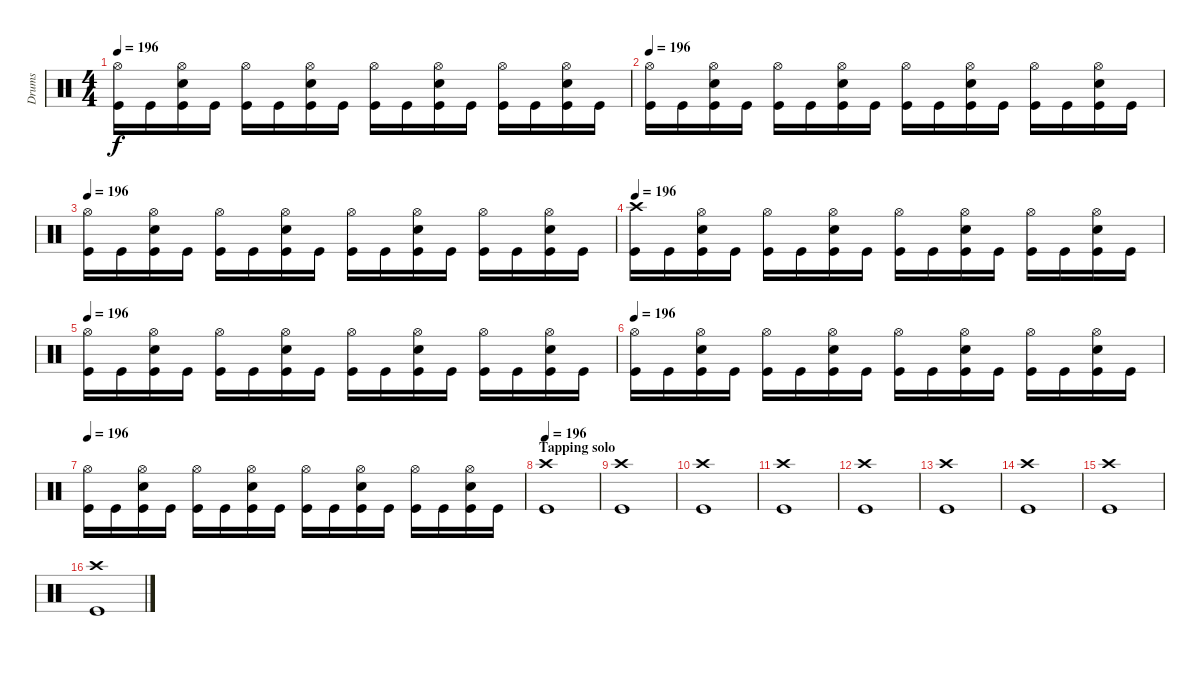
\track ("Drums" "Drums") {instrument percussion}
\staff {score}
\articulation defaults
\ts (4 4)
\tempo 196
\clef neutral
\ks c
("Hi-Hat (open)" "Kick (hit)").16{dy f} "Kick (hit)".16 ("Hi-Hat (open)" "Electric Snare (hit)" "Kick (hit)").16 "Kick (hit)".16 ("Hi-Hat (open)" "Kick (hit)").16 "Kick (hit)".16 ("Hi-Hat (open)" "Electric Snare (hit)" "Kick (hit)").16 "Kick (hit)".16 ("Hi-Hat (open)" "Kick (hit)").16 "Kick (hit)".16 ("Hi-Hat (open)" "Electric Snare (hit)" "Kick (hit)").16 "Kick (hit)".16 ("Hi-Hat (open)" "Kick (hit)").16 "Kick (hit)".16 ("Hi-Hat (open)" "Electric Snare (hit)" "Kick (hit)").16 "Kick (hit)".16 |
\tempo 196
("Hi-Hat (open)" "Kick (hit)").16 "Kick (hit)".16 ("Hi-Hat (open)" "Electric Snare (hit)" "Kick (hit)").16 "Kick (hit)".16 ("Hi-Hat (open)" "Kick (hit)").16 "Kick (hit)".16 ("Hi-Hat (open)" "Electric Snare (hit)" "Kick (hit)").16 "Kick (hit)".16 ("Hi-Hat (open)" "Kick (hit)").16 "Kick (hit)".16 ("Hi-Hat (open)" "Electric Snare (hit)" "Kick (hit)").16 "Kick (hit)".16 ("Hi-Hat (open)" "Kick (hit)").16 "Kick (hit)".16 ("Hi-Hat (open)" "Electric Snare (hit)" "Kick (hit)").16 "Kick (hit)".16 |
\tempo 196
("Hi-Hat (open)" "Kick (hit)").16 "Kick (hit)".16 ("Hi-Hat (open)" "Electric Snare (hit)" "Kick (hit)").16 "Kick (hit)".16 ("Hi-Hat (open)" "Kick (hit)").16 "Kick (hit)".16 ("Hi-Hat (open)" "Electric Snare (hit)" "Kick (hit)").16 "Kick (hit)".16 ("Hi-Hat (open)" "Kick (hit)").16 "Kick (hit)".16 ("Hi-Hat (open)" "Electric Snare (hit)" "Kick (hit)").16 "Kick (hit)".16 ("Hi-Hat (open)" "Kick (hit)").16 "Kick (hit)".16 ("Hi-Hat (open)" "Electric Snare (hit)" "Kick (hit)").16 "Kick (hit)".16 |
\tempo 196
("Crash high (hit)" "Kick (hit)").16 "Kick (hit)".16 ("Hi-Hat (open)" "Electric Snare (hit)" "Kick (hit)").16 "Kick (hit)".16 ("Hi-Hat (open)" "Kick (hit)").16 "Kick (hit)".16 ("Hi-Hat (open)" "Electric Snare (hit)" "Kick (hit)").16 "Kick (hit)".16 ("Hi-Hat (open)" "Kick (hit)").16 "Kick (hit)".16 ("Hi-Hat (open)" "Electric Snare (hit)" "Kick (hit)").16 "Kick (hit)".16 ("Hi-Hat (open)" "Kick (hit)").16 "Kick (hit)".16 ("Hi-Hat (open)" "Electric Snare (hit)" "Kick (hit)").16 "Kick (hit)".16 |
\tempo 196
("Hi-Hat (open)" "Kick (hit)").16 "Kick (hit)".16 ("Hi-Hat (open)" "Electric Snare (hit)" "Kick (hit)").16 "Kick (hit)".16 ("Hi-Hat (open)" "Kick (hit)").16 "Kick (hit)".16 ("Hi-Hat (open)" "Electric Snare (hit)" "Kick (hit)").16 "Kick (hit)".16 ("Hi-Hat (open)" "Kick (hit)").16 "Kick (hit)".16 ("Hi-Hat (open)" "Electric Snare (hit)" "Kick (hit)").16 "Kick (hit)".16 ("Hi-Hat (open)" "Kick (hit)").16 "Kick (hit)".16 ("Hi-Hat (open)" "Electric Snare (hit)" "Kick (hit)").16 "Kick (hit)".16 |
\tempo 196
("Hi-Hat (open)" "Kick (hit)").16 "Kick (hit)".16 ("Hi-Hat (open)" "Electric Snare (hit)" "Kick (hit)").16 "Kick (hit)".16 ("Hi-Hat (open)" "Kick (hit)").16 "Kick (hit)".16 ("Hi-Hat (open)" "Electric Snare (hit)" "Kick (hit)").16 "Kick (hit)".16 ("Hi-Hat (open)" "Kick (hit)").16 "Kick (hit)".16 ("Hi-Hat (open)" "Electric Snare (hit)" "Kick (hit)").16 "Kick (hit)".16 ("Hi-Hat (open)" "Kick (hit)").16 "Kick (hit)".16 ("Hi-Hat (open)" "Electric Snare (hit)" "Kick (hit)").16 "Kick (hit)".16 |
\tempo 196
("Hi-Hat (open)" "Kick (hit)").16 "Kick (hit)".16 ("Hi-Hat (open)" "Electric Snare (hit)" "Kick (hit)").16 "Kick (hit)".16 ("Hi-Hat (open)" "Kick (hit)").16 "Kick (hit)".16 ("Hi-Hat (open)" "Electric Snare (hit)" "Kick (hit)").16 "Kick (hit)".16 ("Hi-Hat (open)" "Kick (hit)").16 "Kick (hit)".16 ("Hi-Hat (open)" "Electric Snare (hit)" "Kick (hit)").16 "Kick (hit)".16 ("Hi-Hat (open)" "Kick (hit)").16 "Kick (hit)".16 ("Hi-Hat (open)" "Electric Snare (hit)" "Kick (hit)").16 "Kick (hit)".16 |
\section ("" "Tapping solo")
\tempo 196
("Crash high (hit)" "Kick (hit)").1 |
("Crash high (hit)" "Kick (hit)").1 |
("Crash high (hit)" "Kick (hit)").1 |
("Crash high (hit)" "Kick (hit)").1 |
("Crash high (hit)" "Kick (hit)").1 |
("Crash high (hit)" "Kick (hit)").1 |
("Crash high (hit)" "Kick (hit)").1 |
("Crash high (hit)" "Kick (hit)").1 |
("Crash high (hit)" "Kick (hit)").1
